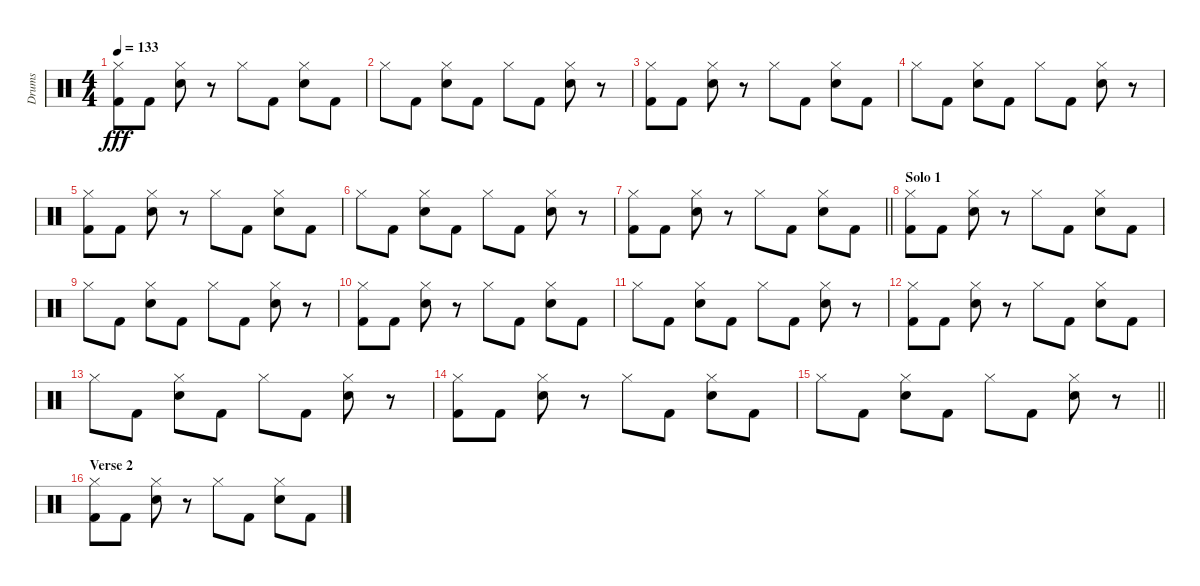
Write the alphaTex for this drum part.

\track ("Drums" "Drums") {instrument percussion}
\staff {score}
\articulation defaults
\ts (4 4)
\tempo 133
\clef neutral
\ks c
("Hi-Hat (closed)" "Kick (hit) 2").8{dy fff} "Kick (hit) 2".8 ("Hi-Hat (closed)" "Snare (hit) 2").8 r.8 "Hi-Hat (closed)".8 "Kick (hit) 2".8 ("Hi-Hat (closed)" "Snare (hit) 2").8 "Kick (hit) 2".8 |
"Hi-Hat (closed)".8 "Kick (hit) 2".8 ("Hi-Hat (closed)" "Snare (hit) 2").8 "Kick (hit) 2".8 "Hi-Hat (closed)".8 "Kick (hit) 2".8 ("Hi-Hat (closed)" "Snare (hit) 2").8 r.8 |
("Hi-Hat (closed)" "Kick (hit) 2").8 "Kick (hit) 2".8 ("Hi-Hat (closed)" "Snare (hit) 2").8 r.8 "Hi-Hat (closed)".8 "Kick (hit) 2".8 ("Hi-Hat (closed)" "Snare (hit) 2").8 "Kick (hit) 2".8 |
"Hi-Hat (closed)".8 "Kick (hit) 2".8 ("Hi-Hat (closed)" "Snare (hit) 2").8 "Kick (hit) 2".8 "Hi-Hat (closed)".8 "Kick (hit) 2".8 ("Hi-Hat (closed)" "Snare (hit) 2").8 r.8 |
("Hi-Hat (closed)" "Kick (hit) 2").8 "Kick (hit) 2".8 ("Hi-Hat (closed)" "Snare (hit) 2").8 r.8 "Hi-Hat (closed)".8 "Kick (hit) 2".8 ("Hi-Hat (closed)" "Snare (hit) 2").8 "Kick (hit) 2".8 |
"Hi-Hat (closed)".8 "Kick (hit) 2".8 ("Hi-Hat (closed)" "Snare (hit) 2").8 "Kick (hit) 2".8 "Hi-Hat (closed)".8 "Kick (hit) 2".8 ("Hi-Hat (closed)" "Snare (hit) 2").8 r.8 |
\barLineRight lightlight
("Hi-Hat (closed)" "Kick (hit) 2").8 "Kick (hit) 2".8 ("Hi-Hat (closed)" "Snare (hit) 2").8 r.8 "Hi-Hat (closed)".8 "Kick (hit) 2".8 ("Hi-Hat (closed)" "Snare (hit) 2").8 "Kick (hit) 2".8 |
\section ("" "Solo 1")
("Hi-Hat (closed)" "Kick (hit) 2").8 "Kick (hit) 2".8 ("Hi-Hat (closed)" "Snare (hit) 2").8 r.8 "Hi-Hat (closed)".8 "Kick (hit) 2".8 ("Hi-Hat (closed)" "Snare (hit) 2").8 "Kick (hit) 2".8 |
"Hi-Hat (closed)".8 "Kick (hit) 2".8 ("Hi-Hat (closed)" "Snare (hit) 2").8 "Kick (hit) 2".8 "Hi-Hat (closed)".8 "Kick (hit) 2".8 ("Hi-Hat (closed)" "Snare (hit) 2").8 r.8 |
("Hi-Hat (closed)" "Kick (hit) 2").8 "Kick (hit) 2".8 ("Hi-Hat (closed)" "Snare (hit) 2").8 r.8 "Hi-Hat (closed)".8 "Kick (hit) 2".8 ("Hi-Hat (closed)" "Snare (hit) 2").8 "Kick (hit) 2".8 |
"Hi-Hat (closed)".8 "Kick (hit) 2".8 ("Hi-Hat (closed)" "Snare (hit) 2").8 "Kick (hit) 2".8 "Hi-Hat (closed)".8 "Kick (hit) 2".8 ("Hi-Hat (closed)" "Snare (hit) 2").8 r.8 |
("Hi-Hat (closed)" "Kick (hit) 2").8 "Kick (hit) 2".8 ("Hi-Hat (closed)" "Snare (hit) 2").8 r.8 "Hi-Hat (closed)".8 "Kick (hit) 2".8 ("Hi-Hat (closed)" "Snare (hit) 2").8 "Kick (hit) 2".8 |
"Hi-Hat (closed)".8 "Kick (hit) 2".8 ("Hi-Hat (closed)" "Snare (hit) 2").8 "Kick (hit) 2".8 "Hi-Hat (closed)".8 "Kick (hit) 2".8 ("Hi-Hat (closed)" "Snare (hit) 2").8 r.8 |
("Hi-Hat (closed)" "Kick (hit) 2").8 "Kick (hit) 2".8 ("Hi-Hat (closed)" "Snare (hit) 2").8 r.8 "Hi-Hat (closed)".8 "Kick (hit) 2".8 ("Hi-Hat (closed)" "Snare (hit) 2").8 "Kick (hit) 2".8 |
\barLineRight lightlight "Hi-Hat (closed)".8 "Kick (hit) 2".8
("Hi-Hat (closed)" "Snare (hit) 2").8 "Kick (hit) 2".8 "Hi-Hat (closed)".8 "Kick (hit) 2".8 ("Hi-Hat (closed)" "Snare (hit) 2").8 r.8 |
\section ("" "Verse 2")
("Hi-Hat (closed)" "Kick (hit) 2").8 "Kick (hit) 2".8 ("Hi-Hat (closed)" "Snare (hit) 2").8 r.8 "Hi-Hat (closed)".8 "Kick (hit) 2".8 ("Hi-Hat (closed)" "Snare (hit) 2").8 "Kick (hit) 2".8
